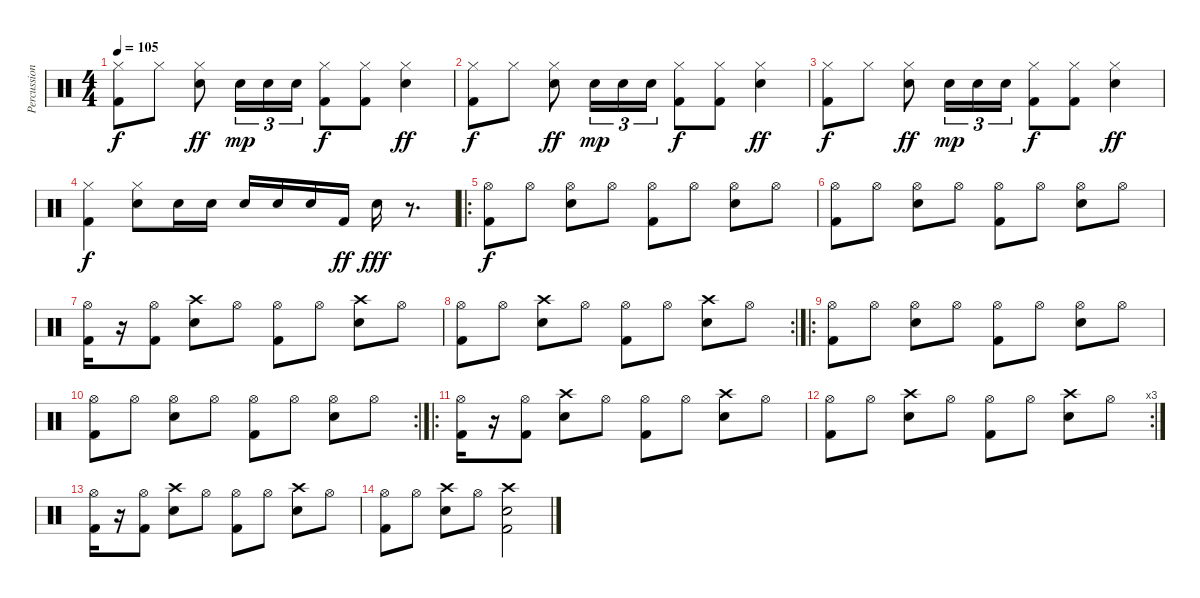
\track ("Percussion" "Percussion") {instrument percussion}
\staff {score}
\articulation defaults
\ts (4 4)
\tempo 105
\clef neutral
\ks c
("Hi-Hat (closed)" "Kick (hit) 2").8{dy f} "Hi-Hat (closed)".8 ("Hi-Hat (closed)" "Snare (hit) 2").8{dy ff} "Snare (hit) 2".16{tu (3 2) dy mp} "Snare (hit) 2".16{tu (3 2)} "Snare (hit) 2".16{tu (3 2)} ("Hi-Hat (closed)" "Kick (hit) 2").8{dy f} ("Hi-Hat (closed)" "Kick (hit) 2").8 ("Hi-Hat (closed)" "Snare (hit) 2").4{dy ff} |
("Hi-Hat (closed)" "Kick (hit) 2").8{dy f} "Hi-Hat (closed)".8 ("Hi-Hat (closed)" "Snare (hit) 2").8{dy ff} "Snare (hit) 2".16{tu (3 2) dy mp} "Snare (hit) 2".16{tu (3 2)} "Snare (hit) 2".16{tu (3 2)} ("Hi-Hat (closed)" "Kick (hit) 2").8{dy f} ("Hi-Hat (closed)" "Kick (hit) 2").8 ("Hi-Hat (closed)" "Snare (hit) 2").4{dy ff} |
("Hi-Hat (closed)" "Kick (hit) 2").8{dy f} "Hi-Hat (closed)".8 ("Hi-Hat (closed)" "Snare (hit) 2").8{dy ff} "Snare (hit) 2".16{tu (3 2) dy mp} "Snare (hit) 2".16{tu (3 2)} "Snare (hit) 2".16{tu (3 2)} ("Hi-Hat (closed)" "Kick (hit) 2").8{dy f} ("Hi-Hat (closed)" "Kick (hit) 2").8 ("Hi-Hat (closed)" "Snare (hit) 2").4{dy ff} |
("Hi-Hat (closed)" "Kick (hit) 2").4{dy f} ("Hi-Hat (closed)" "Snare (hit) 2").8 "Snare (hit) 2".16 "Snare (hit) 2".16 "Snare (hit) 2".16 "Snare (hit) 2".16 "Snare (hit) 2".16 "Kick (hit) 2".16{dy ff} "Snare (hit) 2".16{dy fff} r.8{d} |
\ro
("Hi-Hat (open)" "Kick (hit) 2").8{dy f} "Hi-Hat (open)".8 ("Hi-Hat (open)" "Snare (hit) 2").8 "Hi-Hat (open)".8 ("Hi-Hat (open)" "Kick (hit) 2").8 "Hi-Hat (open)".8 ("Hi-Hat (open)" "Snare (hit) 2").8 "Hi-Hat (open)".8 |
("Hi-Hat (open)" "Kick (hit) 2").8 "Hi-Hat (open)".8 ("Hi-Hat (open)" "Snare (hit) 2").8 "Hi-Hat (open)".8 ("Hi-Hat (open)" "Kick (hit) 2").8 "Hi-Hat (open)".8 ("Hi-Hat (open)" "Snare (hit) 2").8 "Hi-Hat (open)".8 |
("Hi-Hat (open)" "Kick (hit) 2").16 r.16 ("Hi-Hat (open)" "Kick (hit) 2").8 ("Crash high (hit)" "Snare (hit) 2").8 "Hi-Hat (open)".8 ("Hi-Hat (open)" "Kick (hit) 2").8 "Hi-Hat (open)".8 ("Crash high (hit)" "Snare (hit) 2").8 "Hi-Hat (open)".8 |
\rc 2
("Hi-Hat (open)" "Kick (hit) 2").8 "Hi-Hat (open)".8 ("Crash high (hit)" "Snare (hit) 2").8 "Hi-Hat (open)".8 ("Hi-Hat (open)" "Kick (hit) 2").8 "Hi-Hat (open)".8 ("Crash high (hit)" "Snare (hit) 2").8 "Hi-Hat (open)".8 |
\ro
("Hi-Hat (open)" "Kick (hit) 2").8 "Hi-Hat (open)".8 ("Hi-Hat (open)" "Snare (hit) 2").8 "Hi-Hat (open)".8 ("Hi-Hat (open)" "Kick (hit) 2").8 "Hi-Hat (open)".8 ("Hi-Hat (open)" "Snare (hit) 2").8 "Hi-Hat (open)".8 |
\rc 2
("Hi-Hat (open)" "Kick (hit) 2").8 "Hi-Hat (open)".8 ("Hi-Hat (open)" "Snare (hit) 2").8 "Hi-Hat (open)".8 ("Hi-Hat (open)" "Kick (hit) 2").8 "Hi-Hat (open)".8 ("Hi-Hat (open)" "Snare (hit) 2").8 "Hi-Hat (open)".8 |
\ro
("Hi-Hat (open)" "Kick (hit) 2").16 r.16 ("Hi-Hat (open)" "Kick (hit) 2").8 ("Crash high (hit)" "Snare (hit) 2").8 "Hi-Hat (open)".8 ("Hi-Hat (open)" "Kick (hit) 2").8 "Hi-Hat (open)".8 ("Crash high (hit)" "Snare (hit) 2").8 "Hi-Hat (open)".8 |
\rc 3
("Hi-Hat (open)" "Kick (hit) 2").8 "Hi-Hat (open)".8 ("Crash high (hit)" "Snare (hit) 2").8 "Hi-Hat (open)".8 ("Hi-Hat (open)" "Kick (hit) 2").8 "Hi-Hat (open)".8 ("Crash high (hit)" "Snare (hit) 2").8 "Hi-Hat (open)".8 |
("Hi-Hat (open)" "Kick (hit) 2").16 r.16 ("Hi-Hat (open)" "Kick (hit) 2").8 ("Crash high (hit)" "Snare (hit) 2").8 "Hi-Hat (open)".8 ("Hi-Hat (open)" "Kick (hit) 2").8 "Hi-Hat (open)".8 ("Crash high (hit)" "Snare (hit) 2").8 "Hi-Hat (open)".8 |
("Hi-Hat (open)" "Kick (hit) 2").8 "Hi-Hat (open)".8 ("Crash high (hit)" "Snare (hit) 2").8 "Hi-Hat (open)".8 ("Crash high (hit)" "Snare (hit) 2" "Kick (hit) 2").2
